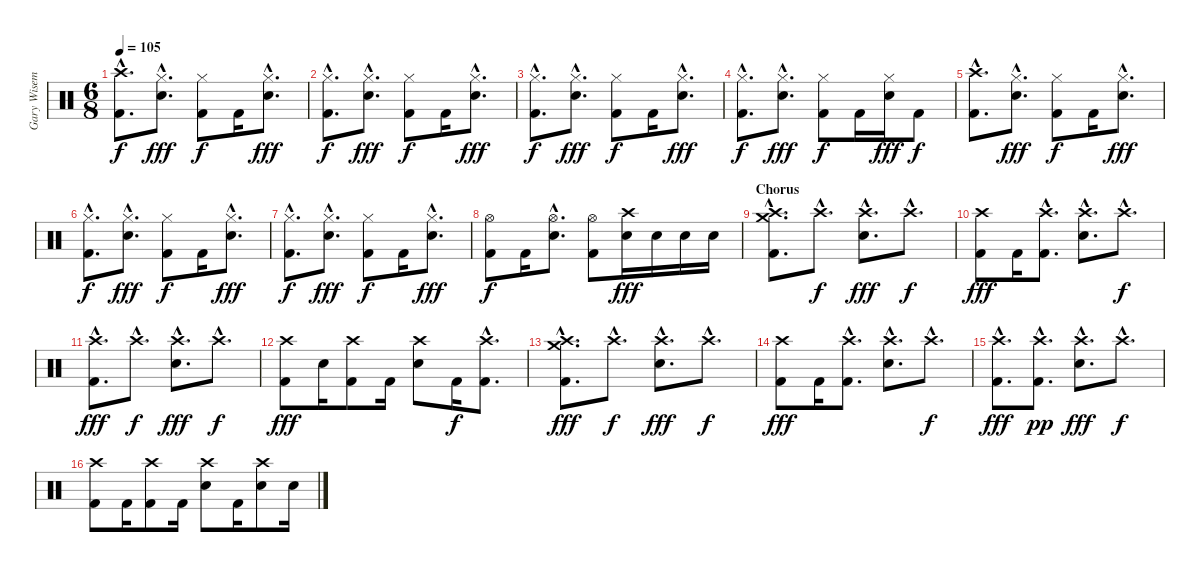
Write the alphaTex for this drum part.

\track ("Gary Wiseman - Drums" "Gary Wisem") {instrument percussion}
\staff {score}
\articulation defaults
\ts (6 8)
\tempo 105
\clef neutral
\ks c
("Crash high (hit)"{hac} "Kick (hit) 2"{hac}).8{d dy f} ("Hi-Hat (closed)"{hac} "Electric Snare (hit)"{hac}).8{d dy fff} ("Hi-Hat (closed)" "Kick (hit) 2").8{dy f} "Kick (hit) 2".16 ("Hi-Hat (closed)"{hac} "Electric Snare (hit)"{hac}).8{d dy fff} |
("Hi-Hat (closed)"{hac} "Kick (hit) 2"{hac}).8{d dy f} ("Hi-Hat (closed)"{hac} "Electric Snare (hit)"{hac}).8{d dy fff} ("Hi-Hat (closed)" "Kick (hit) 2").8{dy f} "Kick (hit) 2".16 ("Hi-Hat (closed)"{hac} "Electric Snare (hit)"{hac}).8{d dy fff} |
("Hi-Hat (closed)"{hac} "Kick (hit) 2"{hac}).8{d dy f} ("Hi-Hat (closed)"{hac} "Electric Snare (hit)"{hac}).8{d dy fff} ("Hi-Hat (closed)" "Kick (hit) 2").8{dy f} "Kick (hit) 2".16 ("Hi-Hat (closed)"{hac} "Electric Snare (hit)"{hac}).8{d dy fff} |
("Hi-Hat (closed)"{hac} "Kick (hit) 2"{hac}).8{d dy f} ("Hi-Hat (closed)"{hac} "Electric Snare (hit)"{hac}).8{d dy fff} ("Hi-Hat (closed)" "Kick (hit) 2").8{dy f} "Kick (hit) 2".16 ("Hi-Hat (closed)" "Electric Snare (hit)").16{dy fff} "Kick (hit) 2".8{dy f} |
("Crash high (hit)"{hac} "Kick (hit) 2"{hac}).8{d} ("Hi-Hat (closed)"{hac} "Electric Snare (hit)"{hac}).8{d dy fff} ("Hi-Hat (closed)" "Kick (hit) 2").8{dy f} "Kick (hit) 2".16 ("Hi-Hat (closed)"{hac} "Electric Snare (hit)"{hac}).8{d dy fff} |
("Hi-Hat (closed)"{hac} "Kick (hit) 2"{hac}).8{d dy f} ("Hi-Hat (closed)"{hac} "Electric Snare (hit)"{hac}).8{d dy fff} ("Hi-Hat (closed)" "Kick (hit) 2").8{dy f} "Kick (hit) 2".16 ("Hi-Hat (closed)"{hac} "Electric Snare (hit)"{hac}).8{d dy fff} |
("Hi-Hat (closed)"{hac} "Kick (hit) 2"{hac}).8{d dy f} ("Hi-Hat (closed)"{hac} "Electric Snare (hit)"{hac}).8{d dy fff} ("Hi-Hat (closed)" "Kick (hit) 2").8{dy f} "Kick (hit) 2".16 ("Hi-Hat (closed)"{hac} "Electric Snare (hit)"{hac}).8{d dy fff} |
("Hi-Hat (open)" "Kick (hit) 2").8{dy f} "Kick (hit) 2".16 ("Hi-Hat (open)"{hac} "Electric Snare (hit)"{hac}).8{d} ("Hi-Hat (open)" "Kick (hit) 2").8 ("Crash high (hit)" "Electric Snare (hit)").16{dy fff} "Electric Snare (hit)".16 "Electric Snare (hit)".16 "Electric Snare (hit)".16 |
\section ("" "Chorus")
("Crash medium (hit)"{hac} "Crash high (hit)"{hac} "Kick (hit) 2"{hac}).8{d} "Crash high (hit)"{hac}.8{d dy f} ("Crash high (hit)"{hac} "Electric Snare (hit)"{hac}).8{d dy fff} "Crash high (hit)"{hac}.8{d dy f} |
("Crash high (hit)" "Kick (hit) 2").8{dy fff} "Kick (hit) 2".16 ("Crash high (hit)"{hac} "Kick (hit) 2"{hac}).8{d} ("Crash high (hit)"{hac} "Electric Snare (hit)"{hac}).8{d} "Crash high (hit)"{hac}.8{d dy f} |
("Crash high (hit)"{hac} "Kick (hit) 2"{hac}).8{d dy fff} "Crash high (hit)"{hac}.8{d dy f} ("Crash high (hit)"{hac} "Electric Snare (hit)"{hac}).8{d dy fff} "Crash high (hit)"{hac}.8{d dy f} |
("Crash high (hit)" "Kick (hit) 2").8{dy fff} "Electric Snare (hit)".16 ("Crash high (hit)" "Kick (hit) 2").8 "Kick (hit) 2".16 ("Crash high (hit)" "Electric Snare (hit)").8 "Kick (hit) 2".16{dy f} ("Crash high (hit)"{hac} "Kick (hit) 2"{hac}).8{d} |
("Crash medium (hit)"{hac} "Crash high (hit)"{hac} "Kick (hit) 2"{hac}).8{d dy fff} "Crash high (hit)"{hac}.8{d dy f} ("Crash high (hit)"{hac} "Electric Snare (hit)"{hac}).8{d dy fff} "Crash high (hit)"{hac}.8{d dy f} |
("Crash high (hit)" "Kick (hit) 2").8{dy fff} "Kick (hit) 2".16 ("Crash high (hit)"{hac} "Kick (hit) 2"{hac}).8{d} ("Crash high (hit)"{hac} "Electric Snare (hit)"{hac}).8{d} "Crash high (hit)"{hac}.8{d dy f} |
("Crash high (hit)"{hac} "Kick (hit) 2"{hac}).8{d dy fff} ("Crash high (hit)"{hac} "Kick (hit) 2"{hac}).8{d dy pp} ("Crash high (hit)"{hac} "Electric Snare (hit)"{hac}).8{d dy fff} "Crash high (hit)"{hac}.8{d dy f} |
("Crash high (hit)" "Kick (hit) 2").8 "Kick (hit) 2".16 ("Crash high (hit)" "Kick (hit) 2").8 "Kick (hit) 2".16 ("Crash high (hit)" "Electric Snare (hit)").8 "Kick (hit) 2".16 ("Crash high (hit)" "Electric Snare (hit)").8 "Electric Snare (hit)".16
